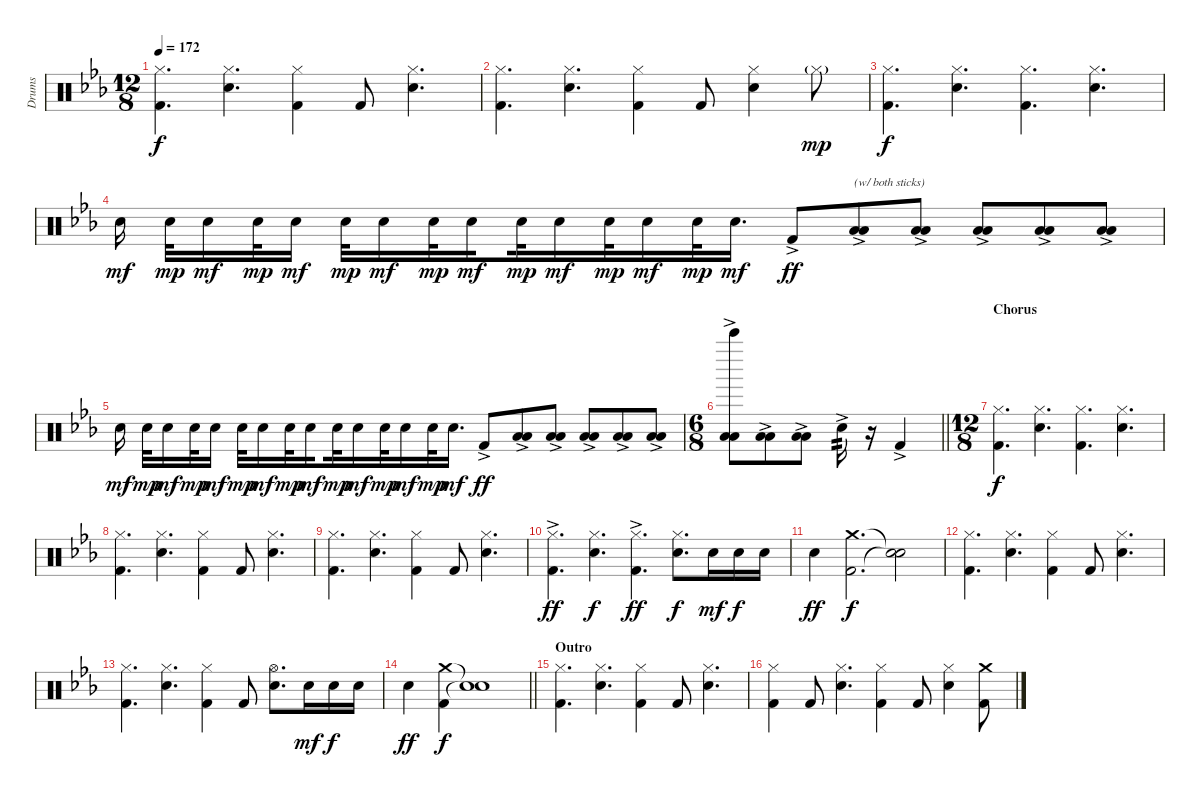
\track ("Drums" "Drums") {instrument percussion}
\staff {score}
\articulation defaults
\ts (12 8)
\tempo 172
\clef neutral
\ks cminor
("Hi-Hat (closed)" "Kick (hit) 2").4{d dy f} ("Hi-Hat (closed)" "Electric Snare (hit)").4{d} ("Hi-Hat (closed)" "Kick (hit) 2").4 "Kick (hit) 2".8 ("Hi-Hat (closed)" "Electric Snare (hit)").4{d} |
("Hi-Hat (closed)" "Kick (hit) 2").4{d} ("Hi-Hat (closed)" "Electric Snare (hit)").4{d} ("Hi-Hat (closed)" "Kick (hit) 2").4 "Kick (hit) 2".8 ("Hi-Hat (closed)" "Electric Snare (hit)").4 "Hi-Hat (closed)"{g}.8{dy mp} |
("Hi-Hat (closed)" "Kick (hit) 2").4{d dy f} ("Hi-Hat (closed)" "Electric Snare (hit)").4{d} ("Hi-Hat (closed)" "Kick (hit) 2").4{d} ("Hi-Hat (closed)" "Electric Snare (hit)").4{d} |
"Electric Snare (hit)".16{dy mf beam split} "Electric Snare (hit)".32{dy mp} "Electric Snare (hit)".16{dy mf} "Electric Snare (hit)".32{dy mp} "Electric Snare (hit)".16{dy mf beam split} "Electric Snare (hit)".32{dy mp} "Electric Snare (hit)".16{dy mf} "Electric Snare (hit)".32{dy mp beam merge} "Electric Snare (hit)".16{dy mf beam splitsecondary} "Electric Snare (hit)".32{dy mp} "Electric Snare (hit)".16{dy mf} "Electric Snare (hit)".32{dy mp} "Electric Snare (hit)".16{dy mf} "Electric Snare (hit)".32{dy mp} "Electric Snare (hit)".16{d dy mf} "Kick (hit) 2"{ac}.8{dy ff} ("Low Floor Tom (hit)"{ac} "Low Floor Tom (hit)"{ac}).8{txt "(w/ both sticks)"} ("Low Floor Tom (hit)"{ac} "Low Floor Tom (hit)"{ac}).8 ("Low Floor Tom (hit)"{ac} "Low Floor Tom (hit)"{ac}).8 ("Low Floor Tom (hit)"{ac} "Low Floor Tom (hit)"{ac}).8 ("Low Floor Tom (hit)"{ac} "Low Floor Tom (hit)"{ac}).8 |
"Electric Snare (hit)".16{dy mf beam split} "Electric Snare (hit)".32{dy mp} "Electric Snare (hit)".16{dy mf} "Electric Snare (hit)".32{dy mp} "Electric Snare (hit)".16{dy mf beam split} "Electric Snare (hit)".32{dy mp} "Electric Snare (hit)".16{dy mf} "Electric Snare (hit)".32{dy mp beam merge} "Electric Snare (hit)".16{dy mf beam splitsecondary} "Electric Snare (hit)".32{dy mp} "Electric Snare (hit)".16{dy mf} "Electric Snare (hit)".32{dy mp} "Electric Snare (hit)".16{dy mf} "Electric Snare (hit)".32{dy mp} "Electric Snare (hit)".16{d dy mf} "Kick (hit) 2"{ac}.8{dy ff} ("Low Floor Tom (hit)"{ac} "Low Floor Tom (hit)"{ac}).8 ("Low Floor Tom (hit)"{ac} "Low Floor Tom (hit)"{ac}).8 ("Low Floor Tom (hit)"{ac} "Low Floor Tom (hit)"{ac}).8 ("Low Floor Tom (hit)"{ac} "Low Floor Tom (hit)"{ac}).8 ("Low Floor Tom (hit)"{ac} "Low Floor Tom (hit)"{ac}).8 |
\ts (6 8)
\barLineRight lightlight
("Bell Tree (hit)" "Low Floor Tom (hit)"{ac} "Low Floor Tom (hit)"{ac}).8 ("Low Floor Tom (hit)"{ac} "Low Floor Tom (hit)"{ac}).8 ("Low Floor Tom (hit)"{ac} "Low Floor Tom (hit)"{ac}).8 "Electric Snare (hit)"{ac}.16{tp 2} r.16 "Kick (hit) 2"{ac}.4 |
\ts (12 8)
\section ("" "Chorus")
("Hi-Hat (closed)" "Kick (hit) 2").4{d dy f} ("Hi-Hat (closed)" "Electric Snare (hit)").4{d} ("Hi-Hat (closed)" "Kick (hit) 2").4{d} ("Hi-Hat (closed)" "Electric Snare (hit)").4{d} |
("Hi-Hat (closed)" "Kick (hit) 2").4{d} ("Hi-Hat (closed)" "Electric Snare (hit)").4{d} ("Hi-Hat (closed)" "Kick (hit) 2").4 "Kick (hit) 2".8 ("Hi-Hat (closed)" "Electric Snare (hit)").4{d} |
("Hi-Hat (closed)" "Kick (hit) 2").4{d} ("Hi-Hat (closed)" "Electric Snare (hit)").4{d} ("Hi-Hat (closed)" "Kick (hit) 2").4 "Kick (hit) 2".8 ("Hi-Hat (closed)" "Electric Snare (hit)").4{d} |
("Hi-Hat (closed)" "Kick (hit) 2"{ac}).4{d dy ff} ("Hi-Hat (closed)" "Electric Snare (hit)").4{d dy f} ("Hi-Hat (closed)" "Kick (hit) 2"{ac}).4{d dy ff} ("Hi-Hat (closed)" "Electric Snare (hit)").8{d dy f} "Electric Snare (hit)".16{dy mf} "Electric Snare (hit)".16{dy f} "Electric Snare (hit)".16 |
"Electric Snare (hit)".4{dy ff} ("Crash medium (hit)" "Kick (hit) 2").2{d dy f} ("Snare (hit)"{t} "Snare (hit)"{t}).2 |
("Hi-Hat (closed)" "Kick (hit) 2").4{d} ("Hi-Hat (closed)" "Electric Snare (hit)").4{d} ("Hi-Hat (closed)" "Kick (hit) 2").4 "Kick (hit) 2".8 ("Hi-Hat (closed)" "Electric Snare (hit)").4{d} |
("Hi-Hat (closed)" "Kick (hit) 2").4{d} ("Hi-Hat (closed)" "Electric Snare (hit)").4{d} ("Hi-Hat (closed)" "Kick (hit) 2").4 "Kick (hit) 2".8 ("Hi-Hat (open)" "Electric Snare (hit)").8{d} "Electric Snare (hit)".16{dy mf} "Electric Snare (hit)".16{dy f} "Electric Snare (hit)".16 |
\barLineRight lightlight "Electric Snare (hit)".4{dy ff}
("Crash medium (hit)" "Kick (hit) 2").4{dy f} ("Snare (hit)"{t} "Snare (hit)"{t}).1 |
\section ("" "Outro")
("Hi-Hat (closed)" "Kick (hit) 2").4{d} ("Hi-Hat (closed)" "Electric Snare (hit)").4{d} ("Hi-Hat (closed)" "Kick (hit) 2").4 "Kick (hit) 2".8 ("Hi-Hat (closed)" "Electric Snare (hit)").4{d} |
("Hi-Hat (closed)" "Kick (hit) 2").4 "Kick (hit) 2".8 ("Hi-Hat (closed)" "Electric Snare (hit)").4{d} ("Hi-Hat (closed)" "Kick (hit) 2").4 "Kick (hit) 2".8 ("Hi-Hat (closed)" "Electric Snare (hit)").4 ("Crash medium (hit)" "Kick (hit) 2").8
